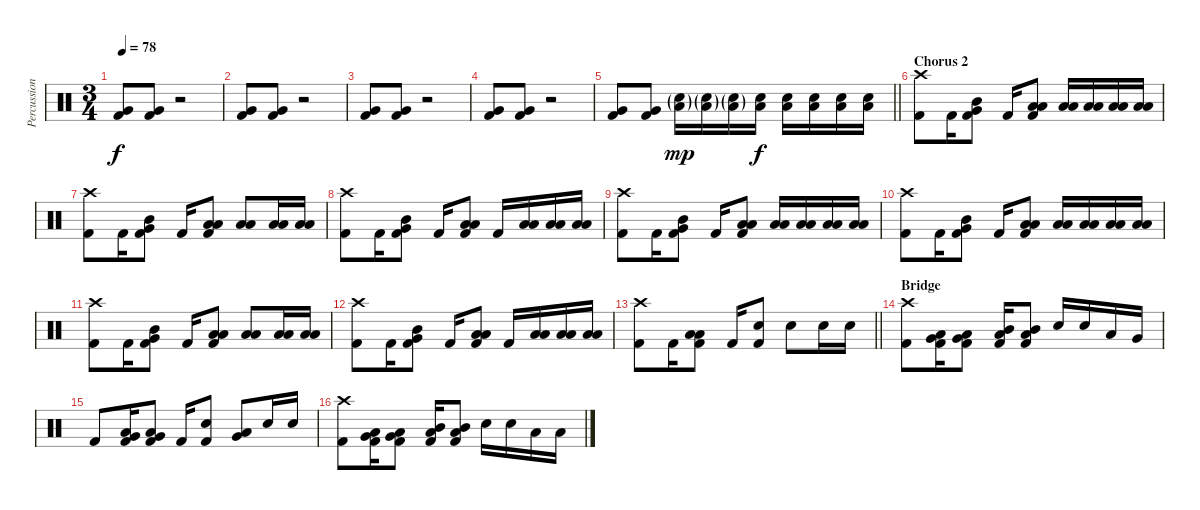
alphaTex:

\track ("Percussion" "Percussion") {instrument percussion}
\staff {score}
\articulation defaults
\ts (3 4)
\tempo 78
\clef neutral
\ks c
("Very Low Tom (hit)" "Kick (hit) 2").8{dy f} ("Very Low Tom (hit)" "Kick (hit) 2").8 r.2 |
("Very Low Tom (hit)" "Kick (hit) 2").8 ("Very Low Tom (hit)" "Kick (hit) 2").8 r.2 |
("Very Low Tom (hit)" "Kick (hit) 2").8 ("Very Low Tom (hit)" "Kick (hit) 2").8 r.2 |
("Very Low Tom (hit)" "Kick (hit) 2").8 ("Very Low Tom (hit)" "Kick (hit) 2").8 r.2 |
\barLineRight lightlight
("Very Low Tom (hit)" "Kick (hit) 2").8 ("Very Low Tom (hit)" "Kick (hit) 2").8 ("Low Tom (hit)"{g} "Electric Snare (hit)"{g}).16{dy mp} ("Low Tom (hit)"{g} "Electric Snare (hit)"{g}).16 ("Low Tom (hit)"{g} "Electric Snare (hit)"{g}).16 ("Low Tom (hit)" "Electric Snare (hit)").16{dy f} ("Low Tom (hit)" "Electric Snare (hit)").16 ("Low Tom (hit)" "Electric Snare (hit)").16 ("Low Tom (hit)" "Electric Snare (hit)").16 ("Low Tom (hit)" "Electric Snare (hit)").16 |
\section ("" "Chorus 2")
("Crash high (hit)" "Kick (hit) 2").8 "Kick (hit) 2".16 ("Mid Tom (hit)" "Very Low Tom (hit)" "Kick (hit) 2").8 "Kick (hit) 2".16 ("Low Tom (hit)" "Low Floor Tom (hit)" "Kick (hit) 2").8 ("Low Tom (hit)" "Low Floor Tom (hit)").16 ("Low Tom (hit)" "Low Floor Tom (hit)").16 ("Low Tom (hit)" "Low Floor Tom (hit)").16 ("Low Tom (hit)" "Low Floor Tom (hit)").16 |
("Crash high (hit)" "Kick (hit) 2").8 "Kick (hit) 2".16 ("Mid Tom (hit)" "Very Low Tom (hit)" "Kick (hit) 2").8 "Kick (hit) 2".16 ("Low Tom (hit)" "Low Floor Tom (hit)" "Kick (hit) 2").8 ("Low Tom (hit)" "Low Floor Tom (hit)").8 ("Low Tom (hit)" "Low Floor Tom (hit)").16 ("Low Tom (hit)" "Low Floor Tom (hit)").16 |
("Crash high (hit)" "Kick (hit) 2").8 "Kick (hit) 2".16 ("Mid Tom (hit)" "Very Low Tom (hit)" "Kick (hit) 2").8 "Kick (hit) 2".16 ("Low Tom (hit)" "Low Floor Tom (hit)" "Kick (hit) 2").8 "Kick (hit) 2".16 ("Low Tom (hit)" "Low Floor Tom (hit)").16 ("Low Tom (hit)" "Low Floor Tom (hit)").16 ("Low Tom (hit)" "Low Floor Tom (hit)").16 |
("Crash high (hit)" "Kick (hit) 2").8 "Kick (hit) 2".16 ("Mid Tom (hit)" "Very Low Tom (hit)" "Kick (hit) 2").8 "Kick (hit) 2".16 ("Low Tom (hit)" "Low Floor Tom (hit)" "Kick (hit) 2").8 ("Low Tom (hit)" "Low Floor Tom (hit)").16 ("Low Tom (hit)" "Low Floor Tom (hit)").16 ("Low Tom (hit)" "Low Floor Tom (hit)").16 ("Low Tom (hit)" "Low Floor Tom (hit)").16 |
("Crash high (hit)" "Kick (hit) 2").8 "Kick (hit) 2".16 ("Mid Tom (hit)" "Very Low Tom (hit)" "Kick (hit) 2").8 "Kick (hit) 2".16 ("Low Tom (hit)" "Low Floor Tom (hit)" "Kick (hit) 2").8 ("Low Tom (hit)" "Low Floor Tom (hit)").16 ("Low Tom (hit)" "Low Floor Tom (hit)").16 ("Low Tom (hit)" "Low Floor Tom (hit)").16 ("Low Tom (hit)" "Low Floor Tom (hit)").16 |
("Crash high (hit)" "Kick (hit) 2").8 "Kick (hit) 2".16 ("Mid Tom (hit)" "Very Low Tom (hit)" "Kick (hit) 2").8 "Kick (hit) 2".16 ("Low Tom (hit)" "Low Floor Tom (hit)" "Kick (hit) 2").8 ("Low Tom (hit)" "Low Floor Tom (hit)").8 ("Low Tom (hit)" "Low Floor Tom (hit)").16 ("Low Tom (hit)" "Low Floor Tom (hit)").16 |
("Crash high (hit)" "Kick (hit) 2").8 "Kick (hit) 2".16 ("Mid Tom (hit)" "Very Low Tom (hit)" "Kick (hit) 2").8 "Kick (hit) 2".16 ("Low Tom (hit)" "Low Floor Tom (hit)" "Kick (hit) 2").8 "Kick (hit) 2".16 ("Low Tom (hit)" "Low Floor Tom (hit)").16 ("Low Tom (hit)" "Low Floor Tom (hit)").16 ("Low Tom (hit)" "Low Floor Tom (hit)").16 |
\barLineRight lightlight
("Crash high (hit)" "Kick (hit) 2").8 "Kick (hit) 2".16 ("Low Tom (hit)" "Low Floor Tom (hit)" "Kick (hit) 2").8 "Kick (hit) 2".16 ("Electric Snare (hit)" "Kick (hit) 2").8 "Electric Snare (hit)".8 "Electric Snare (hit)".16 "Electric Snare (hit)".16 |
\section ("" "Bridge")
("Crash high (hit)" "Kick (hit) 2").8 ("Low Tom (hit)" "Very Low Tom (hit)" "Kick (hit) 2").16 ("Low Tom (hit)" "Very Low Tom (hit)" "Kick (hit) 2").8 ("Mid Tom (hit)" "Low Tom (hit)" "Kick (hit) 2").16 ("Mid Tom (hit)" "Low Tom (hit)" "Kick (hit) 2").8 "Electric Snare (hit)".16 "Electric Snare (hit)".16 "Low Tom (hit)".16 "Very Low Tom (hit)".16 |
"Kick (hit) 2".8 ("Low Tom (hit)" "Very Low Tom (hit)" "Kick (hit) 2").16 ("Low Tom (hit)" "Very Low Tom (hit)" "Kick (hit) 2").8 "Kick (hit) 2".16 ("Electric Snare (hit)" "Kick (hit) 2").8 ("Low Tom (hit)" "Very Low Tom (hit)").8 "Electric Snare (hit)".16 "Electric Snare (hit)".16 |
("Crash high (hit)" "Kick (hit) 2").8 ("Low Tom (hit)" "Very Low Tom (hit)" "Kick (hit) 2").16 ("Low Tom (hit)" "Very Low Tom (hit)" "Kick (hit) 2").8 ("Mid Tom (hit)" "Low Tom (hit)" "Kick (hit) 2").16 ("Mid Tom (hit)" "Low Tom (hit)" "Kick (hit) 2").8 "Electric Snare (hit)".16 "Electric Snare (hit)".16 "Low Tom (hit)".16 "Low Floor Tom (hit)".16
